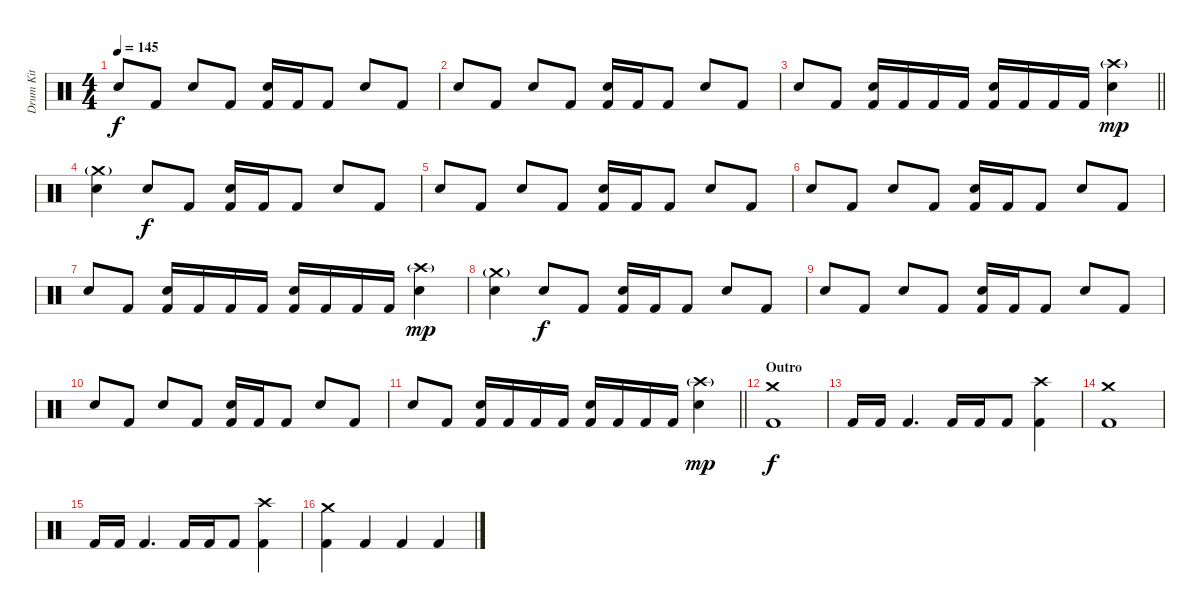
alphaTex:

\track ("Drum Kit" "Drum Kit") {instrument percussion}
\staff {score}
\articulation defaults
\ts (4 4)
\tempo 145
\clef neutral
\ks c "Electric Snare (hit)".8{dy f} "Kick (hit) 2".8 "Electric Snare (hit)".8 "Kick (hit) 2".8
("Electric Snare (hit)" "Kick (hit) 2").16 "Kick (hit) 2".16 "Kick (hit) 2".8 "Electric Snare (hit)".8 "Kick (hit) 2".8 |
"Electric Snare (hit)".8 "Kick (hit) 2".8 "Electric Snare (hit)".8 "Kick (hit) 2".8 ("Electric Snare (hit)" "Kick (hit) 2").16 "Kick (hit) 2".16 "Kick (hit) 2".8 "Electric Snare (hit)".8 "Kick (hit) 2".8 |
\barLineRight lightlight "Electric Snare (hit)".8 "Kick (hit) 2".8
("Electric Snare (hit)" "Kick (hit) 2").16 "Kick (hit) 2".16 "Kick (hit) 2".16 "Kick (hit) 2".16 ("Electric Snare (hit)" "Kick (hit) 2").16 "Kick (hit) 2".16 "Kick (hit) 2".16 "Kick (hit) 2".16 ("Crash high (hit)"{g} "Electric Snare (hit)").4{dy mp} |
("Crash medium (hit)"{g} "Electric Snare (hit)").4 "Electric Snare (hit)".8{dy f} "Kick (hit) 2".8 ("Electric Snare (hit)" "Kick (hit) 2").16 "Kick (hit) 2".16 "Kick (hit) 2".8 "Electric Snare (hit)".8 "Kick (hit) 2".8 |
"Electric Snare (hit)".8 "Kick (hit) 2".8 "Electric Snare (hit)".8 "Kick (hit) 2".8 ("Electric Snare (hit)" "Kick (hit) 2").16 "Kick (hit) 2".16 "Kick (hit) 2".8 "Electric Snare (hit)".8 "Kick (hit) 2".8 |
"Electric Snare (hit)".8 "Kick (hit) 2".8 "Electric Snare (hit)".8 "Kick (hit) 2".8 ("Electric Snare (hit)" "Kick (hit) 2").16 "Kick (hit) 2".16 "Kick (hit) 2".8 "Electric Snare (hit)".8 "Kick (hit) 2".8 |
"Electric Snare (hit)".8 "Kick (hit) 2".8 ("Electric Snare (hit)" "Kick (hit) 2").16 "Kick (hit) 2".16 "Kick (hit) 2".16 "Kick (hit) 2".16 ("Electric Snare (hit)" "Kick (hit) 2").16 "Kick (hit) 2".16 "Kick (hit) 2".16 "Kick (hit) 2".16 ("Crash high (hit)"{g} "Electric Snare (hit)").4{dy mp} |
("Crash medium (hit)"{g} "Electric Snare (hit)").4 "Electric Snare (hit)".8{dy f} "Kick (hit) 2".8 ("Electric Snare (hit)" "Kick (hit) 2").16 "Kick (hit) 2".16 "Kick (hit) 2".8 "Electric Snare (hit)".8 "Kick (hit) 2".8 |
"Electric Snare (hit)".8 "Kick (hit) 2".8 "Electric Snare (hit)".8 "Kick (hit) 2".8 ("Electric Snare (hit)" "Kick (hit) 2").16 "Kick (hit) 2".16 "Kick (hit) 2".8 "Electric Snare (hit)".8 "Kick (hit) 2".8 |
"Electric Snare (hit)".8 "Kick (hit) 2".8 "Electric Snare (hit)".8 "Kick (hit) 2".8 ("Electric Snare (hit)" "Kick (hit) 2").16 "Kick (hit) 2".16 "Kick (hit) 2".8 "Electric Snare (hit)".8 "Kick (hit) 2".8 |
\barLineRight lightlight "Electric Snare (hit)".8 "Kick (hit) 2".8
("Electric Snare (hit)" "Kick (hit) 2").16 "Kick (hit) 2".16 "Kick (hit) 2".16 "Kick (hit) 2".16 ("Electric Snare (hit)" "Kick (hit) 2").16 "Kick (hit) 2".16 "Kick (hit) 2".16 "Kick (hit) 2".16 ("Crash high (hit)"{g} "Electric Snare (hit)").4{dy mp} |
\section ("" "Outro")
("Crash medium (hit)" "Kick (hit) 2").1{dy f} |
"Kick (hit) 2".16 "Kick (hit) 2".16 "Kick (hit) 2".4{d} "Kick (hit) 2".16 "Kick (hit) 2".16 "Kick (hit) 2".8 ("Crash high (hit)" "Kick (hit) 2").4 |
("Crash medium (hit)" "Kick (hit) 2").1 |
"Kick (hit) 2".16 "Kick (hit) 2".16 "Kick (hit) 2".4{d} "Kick (hit) 2".16 "Kick (hit) 2".16 "Kick (hit) 2".8 ("Crash high (hit)" "Kick (hit) 2").4 |
("Crash medium (hit)" "Kick (hit) 2").4 "Kick (hit) 2".4 "Kick (hit) 2".4 "Kick (hit) 2".4
